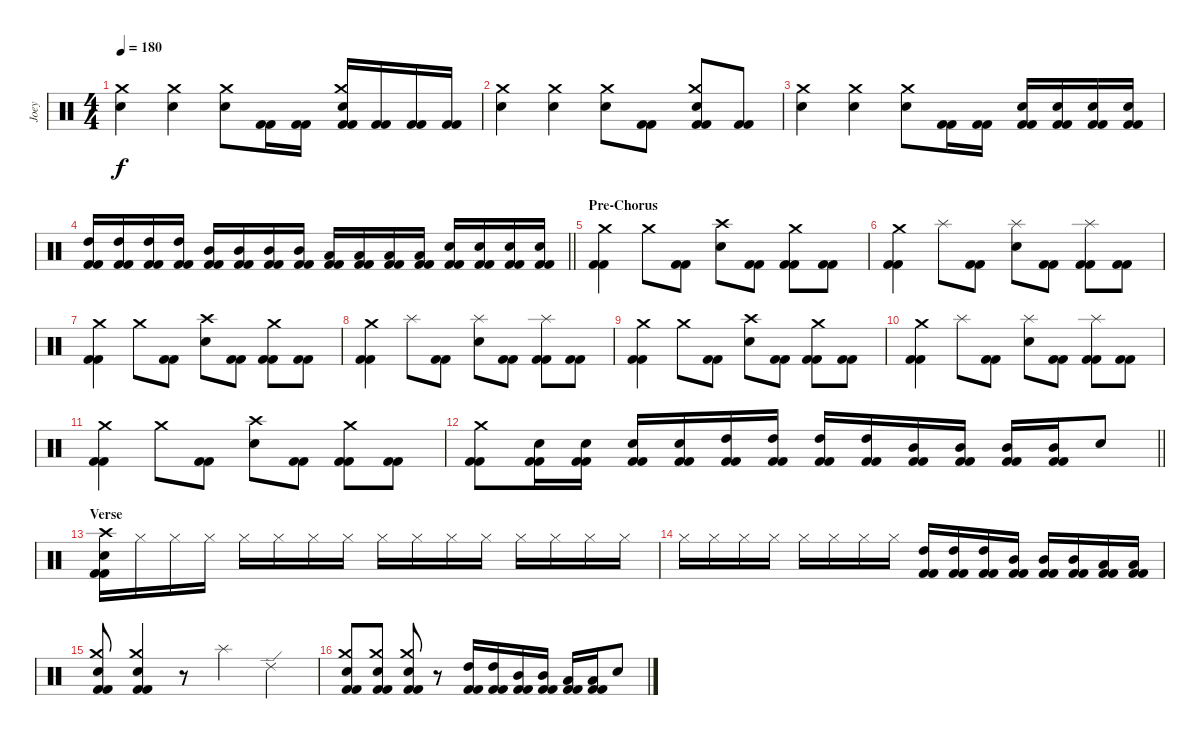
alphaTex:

\track ("Joey" "Joey") {instrument percussion}
\staff {score}
\articulation defaults
\ts (4 4)
\tempo 180
\clef neutral
\ks c
("Electric Snare (hit)" "Crash medium (hit)").4{dy f} ("Electric Snare (hit)" "Crash medium (hit)").4 ("Electric Snare (hit)" "Crash medium (hit)").8 ("Kick (hit) 2" "Kick (hit) 2").16 ("Kick (hit) 2" "Kick (hit) 2").16 ("Electric Snare (hit)" "Crash medium (hit)" "Kick (hit) 2" "Kick (hit) 2").16 ("Kick (hit) 2" "Kick (hit) 2").16 ("Kick (hit) 2" "Kick (hit) 2").16 ("Kick (hit) 2" "Kick (hit) 2").16 |
("Electric Snare (hit)" "Crash medium (hit)").4 ("Electric Snare (hit)" "Crash medium (hit)").4 ("Electric Snare (hit)" "Crash medium (hit)").8 ("Kick (hit) 2" "Kick (hit) 2").8 ("Electric Snare (hit)" "Crash medium (hit)" "Kick (hit) 2" "Kick (hit) 2").8 ("Kick (hit) 2" "Kick (hit) 2").8 |
("Electric Snare (hit)" "Crash medium (hit)").4 ("Electric Snare (hit)" "Crash medium (hit)").4 ("Electric Snare (hit)" "Crash medium (hit)").8 ("Kick (hit) 2" "Kick (hit) 2").16 ("Kick (hit) 2" "Kick (hit) 2").16 ("Electric Snare (hit)" "Kick (hit) 2" "Kick (hit) 2").16 ("Electric Snare (hit)" "Kick (hit) 2" "Kick (hit) 2").16 ("Electric Snare (hit)" "Kick (hit) 2" "Kick (hit) 2").16 ("Electric Snare (hit)" "Kick (hit) 2" "Kick (hit) 2").16 |
\barLineRight lightlight
("High Tom (hit)" "Kick (hit) 2" "Kick (hit) 2").16 ("High Tom (hit)" "Kick (hit) 2" "Kick (hit) 2").16 ("High Tom (hit)" "Kick (hit) 2" "Kick (hit) 2").16 ("High Tom (hit)" "Kick (hit) 2" "Kick (hit) 2").16 ("Mid Tom (hit)" "Kick (hit) 2" "Kick (hit) 2").16 ("Mid Tom (hit)" "Kick (hit) 2" "Kick (hit) 2").16 ("Mid Tom (hit)" "Kick (hit) 2" "Kick (hit) 2").16 ("Mid Tom (hit)" "Kick (hit) 2" "Kick (hit) 2").16 ("Low Tom (hit)" "Kick (hit) 2" "Kick (hit) 2").16 ("Low Tom (hit)" "Kick (hit) 2" "Kick (hit) 2").16 ("Low Tom (hit)" "Kick (hit) 2" "Kick (hit) 2").16 ("Low Tom (hit)" "Kick (hit) 2" "Kick (hit) 2").16 ("Electric Snare (hit)" "Kick (hit) 2" "Kick (hit) 2").16 ("Electric Snare (hit)" "Kick (hit) 2" "Kick (hit) 2").16 ("Electric Snare (hit)" "Kick (hit) 2" "Kick (hit) 2").16 ("Electric Snare (hit)" "Kick (hit) 2" "Kick (hit) 2").16 |
\section ("" "Pre-Chorus")
("Crash medium (hit)" "Kick (hit) 2" "Kick (hit) 2").4 "Crash medium (hit)".8 ("Kick (hit) 2" "Kick (hit) 2").8 ("Electric Snare (hit)" "Crash high (hit)").8 ("Kick (hit) 2" "Kick (hit) 2").8 ("Crash medium (hit)" "Kick (hit) 2" "Kick (hit) 2").8 ("Kick (hit) 2" "Kick (hit) 2").8 |
("Crash medium (hit)" "Kick (hit) 2" "Kick (hit) 2").4 "Splash (hit)".8 ("Kick (hit) 2" "Kick (hit) 2").8 ("Electric Snare (hit)" "Splash (hit)").8 ("Kick (hit) 2" "Kick (hit) 2").8 ("Splash (hit)" "Kick (hit) 2" "Kick (hit) 2").8 ("Kick (hit) 2" "Kick (hit) 2").8 |
("Crash medium (hit)" "Kick (hit) 2" "Kick (hit) 2").4 "Crash medium (hit)".8 ("Kick (hit) 2" "Kick (hit) 2").8 ("Electric Snare (hit)" "Crash high (hit)").8 ("Kick (hit) 2" "Kick (hit) 2").8 ("Crash medium (hit)" "Kick (hit) 2" "Kick (hit) 2").8 ("Kick (hit) 2" "Kick (hit) 2").8 |
("Crash medium (hit)" "Kick (hit) 2" "Kick (hit) 2").4 "Splash (hit)".8 ("Kick (hit) 2" "Kick (hit) 2").8 ("Electric Snare (hit)" "Splash (hit)").8 ("Kick (hit) 2" "Kick (hit) 2").8 ("Splash (hit)" "Kick (hit) 2" "Kick (hit) 2").8 ("Kick (hit) 2" "Kick (hit) 2").8 |
("Crash medium (hit)" "Kick (hit) 2" "Kick (hit) 2").4 "Crash medium (hit)".8 ("Kick (hit) 2" "Kick (hit) 2").8 ("Electric Snare (hit)" "Crash high (hit)").8 ("Kick (hit) 2" "Kick (hit) 2").8 ("Crash medium (hit)" "Kick (hit) 2" "Kick (hit) 2").8 ("Kick (hit) 2" "Kick (hit) 2").8 |
("Crash medium (hit)" "Kick (hit) 2" "Kick (hit) 2").4 "Splash (hit)".8 ("Kick (hit) 2" "Kick (hit) 2").8 ("Electric Snare (hit)" "Splash (hit)").8 ("Kick (hit) 2" "Kick (hit) 2").8 ("Splash (hit)" "Kick (hit) 2" "Kick (hit) 2").8 ("Kick (hit) 2" "Kick (hit) 2").8 |
("Crash medium (hit)" "Kick (hit) 2" "Kick (hit) 2").4 "Crash medium (hit)".8 ("Kick (hit) 2" "Kick (hit) 2").8 ("Electric Snare (hit)" "Crash high (hit)").8 ("Kick (hit) 2" "Kick (hit) 2").8 ("Crash medium (hit)" "Kick (hit) 2" "Kick (hit) 2").8 ("Kick (hit) 2" "Kick (hit) 2").8 |
\barLineRight lightlight
("Crash medium (hit)" "Kick (hit) 2" "Kick (hit) 2").8 ("Electric Snare (hit)" "Kick (hit) 2" "Kick (hit) 2").16 ("Electric Snare (hit)" "Kick (hit) 2" "Kick (hit) 2").16 ("Electric Snare (hit)" "Kick (hit) 2" "Kick (hit) 2").16 ("Electric Snare (hit)" "Kick (hit) 2" "Kick (hit) 2").16 ("High Tom (hit)" "Kick (hit) 2" "Kick (hit) 2").16 ("High Tom (hit)" "Kick (hit) 2" "Kick (hit) 2").16 ("High Tom (hit)" "Kick (hit) 2" "Kick (hit) 2").16 ("High Tom (hit)" "Kick (hit) 2" "Kick (hit) 2").16 ("Mid Tom (hit)" "Kick (hit) 2" "Kick (hit) 2").16 ("Mid Tom (hit)" "Kick (hit) 2" "Kick (hit) 2").16 ("Mid Tom (hit)" "Kick (hit) 2" "Kick (hit) 2").16 ("Mid Tom (hit)" "Kick (hit) 2" "Kick (hit) 2").16 "Electric Snare (hit)".8 |
\section ("" "Verse")
("Electric Snare (hit)" "Crash high (hit)" "Kick (hit) 2" "Kick (hit) 2").16 "Hi-Hat (closed)".16 "Hi-Hat (closed)".16 "Hi-Hat (closed)".16 "Hi-Hat (closed)".16 "Hi-Hat (closed)".16 "Hi-Hat (closed)".16 "Hi-Hat (closed)".16 "Hi-Hat (closed)".16 "Hi-Hat (closed)".16 "Hi-Hat (closed)".16 "Hi-Hat (closed)".16 "Hi-Hat (closed)".16 "Hi-Hat (closed)".16 "Hi-Hat (closed)".16 "Hi-Hat (closed)".16 |
"Hi-Hat (closed)".16 "Hi-Hat (closed)".16 "Hi-Hat (closed)".16 "Hi-Hat (closed)".16 "Hi-Hat (closed)".16 "Hi-Hat (closed)".16 "Hi-Hat (closed)".16 "Hi-Hat (closed)".16 ("High Tom (hit)" "Kick (hit) 2" "Kick (hit) 2").16 ("High Tom (hit)" "Kick (hit) 2" "Kick (hit) 2").16 ("High Tom (hit)" "Kick (hit) 2" "Kick (hit) 2").16 ("Mid Tom (hit)" "Kick (hit) 2" "Kick (hit) 2").16 ("Mid Tom (hit)" "Kick (hit) 2" "Kick (hit) 2").16 ("Mid Tom (hit)" "Kick (hit) 2" "Kick (hit) 2").16 ("Low Tom (hit)" "Kick (hit) 2" "Kick (hit) 2").16 ("Low Tom (hit)" "Kick (hit) 2" "Kick (hit) 2").16 |
("Electric Snare (hit)" "Crash medium (hit)" "Kick (hit) 2" "Kick (hit) 2").8 ("Electric Snare (hit)" "Crash medium (hit)" "Kick (hit) 2" "Kick (hit) 2").4 r.8 "Splash (hit)".4 "Ride (edge) 2".4 |
("Electric Snare (hit)" "Crash medium (hit)" "Kick (hit) 2" "Kick (hit) 2").8 ("Electric Snare (hit)" "Crash medium (hit)" "Kick (hit) 2" "Kick (hit) 2").8 ("Electric Snare (hit)" "Crash medium (hit)" "Kick (hit) 2" "Kick (hit) 2").8 r.8 ("High Tom (hit)" "Kick (hit) 2" "Kick (hit) 2").16 ("High Tom (hit)" "Kick (hit) 2" "Kick (hit) 2").16 ("Mid Tom (hit)" "Kick (hit) 2" "Kick (hit) 2").16 ("Mid Tom (hit)" "Kick (hit) 2" "Kick (hit) 2").16 ("Low Tom (hit)" "Kick (hit) 2" "Kick (hit) 2").16 ("Low Tom (hit)" "Kick (hit) 2" "Kick (hit) 2").16 "Electric Snare (hit)".8
